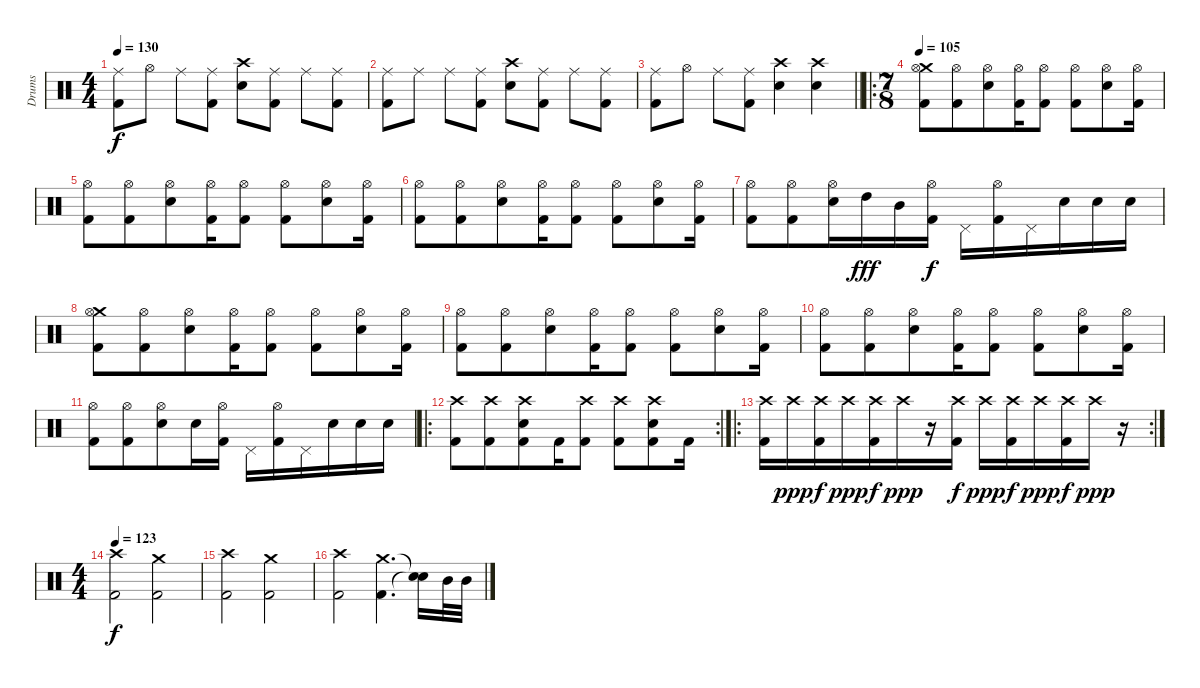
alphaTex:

\track ("Drums" "Drums") {instrument percussion}
\staff {score}
\articulation defaults
\ts (4 4)
\tempo 130
\clef neutral
\ks c
("Ride (middle)" "Kick (hit) 2").8{dy f} "Hi-Hat (open)".8 "Ride (middle)".8 ("Ride (middle)" "Kick (hit) 2").8 ("Crash high (hit)" "Snare (hit) 2").8 ("Ride (middle)" "Kick (hit) 2").8 "Ride (middle)".8 ("Ride (middle)" "Kick (hit) 2").8 |
("Ride (middle)" "Kick (hit) 2").8 "Ride (middle)".8 "Ride (middle)".8 ("Ride (middle)" "Kick (hit) 2").8 ("Crash high (hit)" "Snare (hit) 2").8 ("Ride (middle)" "Kick (hit) 2").8 "Ride (middle)".8 ("Ride (middle)" "Kick (hit) 2").8 |
\barLineRight lightlight
("Ride (middle)" "Kick (hit) 2").8 "Hi-Hat (open)".8 "Ride (middle)".8 ("Ride (middle)" "Kick (hit) 2").8 ("Crash high (hit)" "Snare (hit) 2").4 ("Crash high (hit)" "Snare (hit) 2").4 |
\ro
\ts (7 8)
\tempo 105
("Crash medium (hit)" "Hi-Hat (open)" "Kick (hit) 2").8 ("Hi-Hat (open)" "Kick (hit) 2").8 ("Snare (hit) 2" "Hi-Hat (open)").8 ("Hi-Hat (open)" "Kick (hit) 2").16 ("Hi-Hat (open)" "Kick (hit) 2").8 ("Hi-Hat (open)" "Kick (hit) 2").8 ("Snare (hit) 2" "Hi-Hat (open)").8 ("Hi-Hat (open)" "Kick (hit) 2").16 |
("Hi-Hat (open)" "Kick (hit) 2").8 ("Hi-Hat (open)" "Kick (hit) 2").8 ("Snare (hit) 2" "Hi-Hat (open)").8 ("Hi-Hat (open)" "Kick (hit) 2").16 ("Hi-Hat (open)" "Kick (hit) 2").8 ("Hi-Hat (open)" "Kick (hit) 2").8 ("Snare (hit) 2" "Hi-Hat (open)").8 ("Hi-Hat (open)" "Kick (hit) 2").16 |
("Hi-Hat (open)" "Kick (hit) 2").8 ("Hi-Hat (open)" "Kick (hit) 2").8 ("Snare (hit) 2" "Hi-Hat (open)").8 ("Hi-Hat (open)" "Kick (hit) 2").16 ("Hi-Hat (open)" "Kick (hit) 2").8 ("Hi-Hat (open)" "Kick (hit) 2").8 ("Snare (hit) 2" "Hi-Hat (open)").8 ("Hi-Hat (open)" "Kick (hit) 2").16 |
("Hi-Hat (open)" "Kick (hit) 2").8 ("Hi-Hat (open)" "Kick (hit) 2").8 ("Snare (hit) 2" "Hi-Hat (open)").16 "High Tom (hit)".16{dy fff} "Mid Tom (hit)".16 ("Hi-Hat (open)" "Kick (hit) 2").16{dy f} "Pedal Hi-Hat (hit)".16 ("Hi-Hat (open)" "Kick (hit) 2").16 "Pedal Hi-Hat (hit)".16 "Snare (hit) 2".16 "Snare (hit) 2".16 "Snare (hit) 2".16 |
("Crash medium (hit)" "Hi-Hat (open)" "Kick (hit) 2").8 ("Hi-Hat (open)" "Kick (hit) 2").8 ("Snare (hit) 2" "Hi-Hat (open)").8 ("Hi-Hat (open)" "Kick (hit) 2").16 ("Hi-Hat (open)" "Kick (hit) 2").8 ("Hi-Hat (open)" "Kick (hit) 2").8 ("Snare (hit) 2" "Hi-Hat (open)").8 ("Hi-Hat (open)" "Kick (hit) 2").16 |
("Hi-Hat (open)" "Kick (hit) 2").8 ("Hi-Hat (open)" "Kick (hit) 2").8 ("Snare (hit) 2" "Hi-Hat (open)").8 ("Hi-Hat (open)" "Kick (hit) 2").16 ("Hi-Hat (open)" "Kick (hit) 2").8 ("Hi-Hat (open)" "Kick (hit) 2").8 ("Snare (hit) 2" "Hi-Hat (open)").8 ("Hi-Hat (open)" "Kick (hit) 2").16 |
("Hi-Hat (open)" "Kick (hit) 2").8 ("Hi-Hat (open)" "Kick (hit) 2").8 ("Snare (hit) 2" "Hi-Hat (open)").8 ("Hi-Hat (open)" "Kick (hit) 2").16 ("Hi-Hat (open)" "Kick (hit) 2").8 ("Hi-Hat (open)" "Kick (hit) 2").8 ("Snare (hit) 2" "Hi-Hat (open)").8 ("Hi-Hat (open)" "Kick (hit) 2").16 |
("Hi-Hat (open)" "Kick (hit) 2").8 ("Hi-Hat (open)" "Kick (hit) 2").8 ("Snare (hit) 2" "Hi-Hat (open)").8 "Snare (hit) 2".16 ("Hi-Hat (open)" "Kick (hit) 2").16 "Pedal Hi-Hat (hit)".16 ("Hi-Hat (open)" "Kick (hit) 2").16 "Pedal Hi-Hat (hit)".16 "Snare (hit) 2".16 "Snare (hit) 2".16 "Snare (hit) 2".16 |
\ro
\rc 2
("Crash high (hit)" "Kick (hit) 2").8 ("Crash high (hit)" "Kick (hit) 2").8 ("Crash high (hit)" "Snare (hit) 2" "Kick (hit) 2").8 "Kick (hit) 2".16 ("Crash high (hit)" "Kick (hit) 2").8 ("Crash high (hit)" "Kick (hit) 2").8 ("Crash high (hit)" "Snare (hit) 2" "Kick (hit) 2").8 "Kick (hit) 2".16 |
\ro
\rc 2
("Crash high (hit)" "Kick (hit) 2").16 "Crash high (hit)".16{dy ppp} ("Crash high (hit)" "Kick (hit) 2").16{dy f} "Crash high (hit)".16{dy ppp} ("Crash high (hit)" "Kick (hit) 2").16{dy f} "Crash high (hit)".16{dy ppp} r.16 ("Crash high (hit)" "Kick (hit) 2").16{dy f} "Crash high (hit)".16{dy ppp} ("Crash high (hit)" "Kick (hit) 2").16{dy f} "Crash high (hit)".16{dy ppp} ("Crash high (hit)" "Kick (hit) 2").16{dy f} "Crash high (hit)".16{dy ppp} r.16 |
\ts (4 4)
\tempo 123
("Crash high (hit)" "Kick (hit) 2").2{dy f} ("Crash medium (hit)" "Kick (hit) 2").2 |
("Crash high (hit)" "Kick (hit) 2").2 ("Crash medium (hit)" "Kick (hit) 2").2 |
("Crash high (hit)" "Kick (hit) 2").2 ("Crash medium (hit)" "Kick (hit) 2").4{d} ("Snare (hit)"{t} "Snare (hit)"{t}).16 "Mid Tom (hit)".32 "Mid Tom (hit)".32
